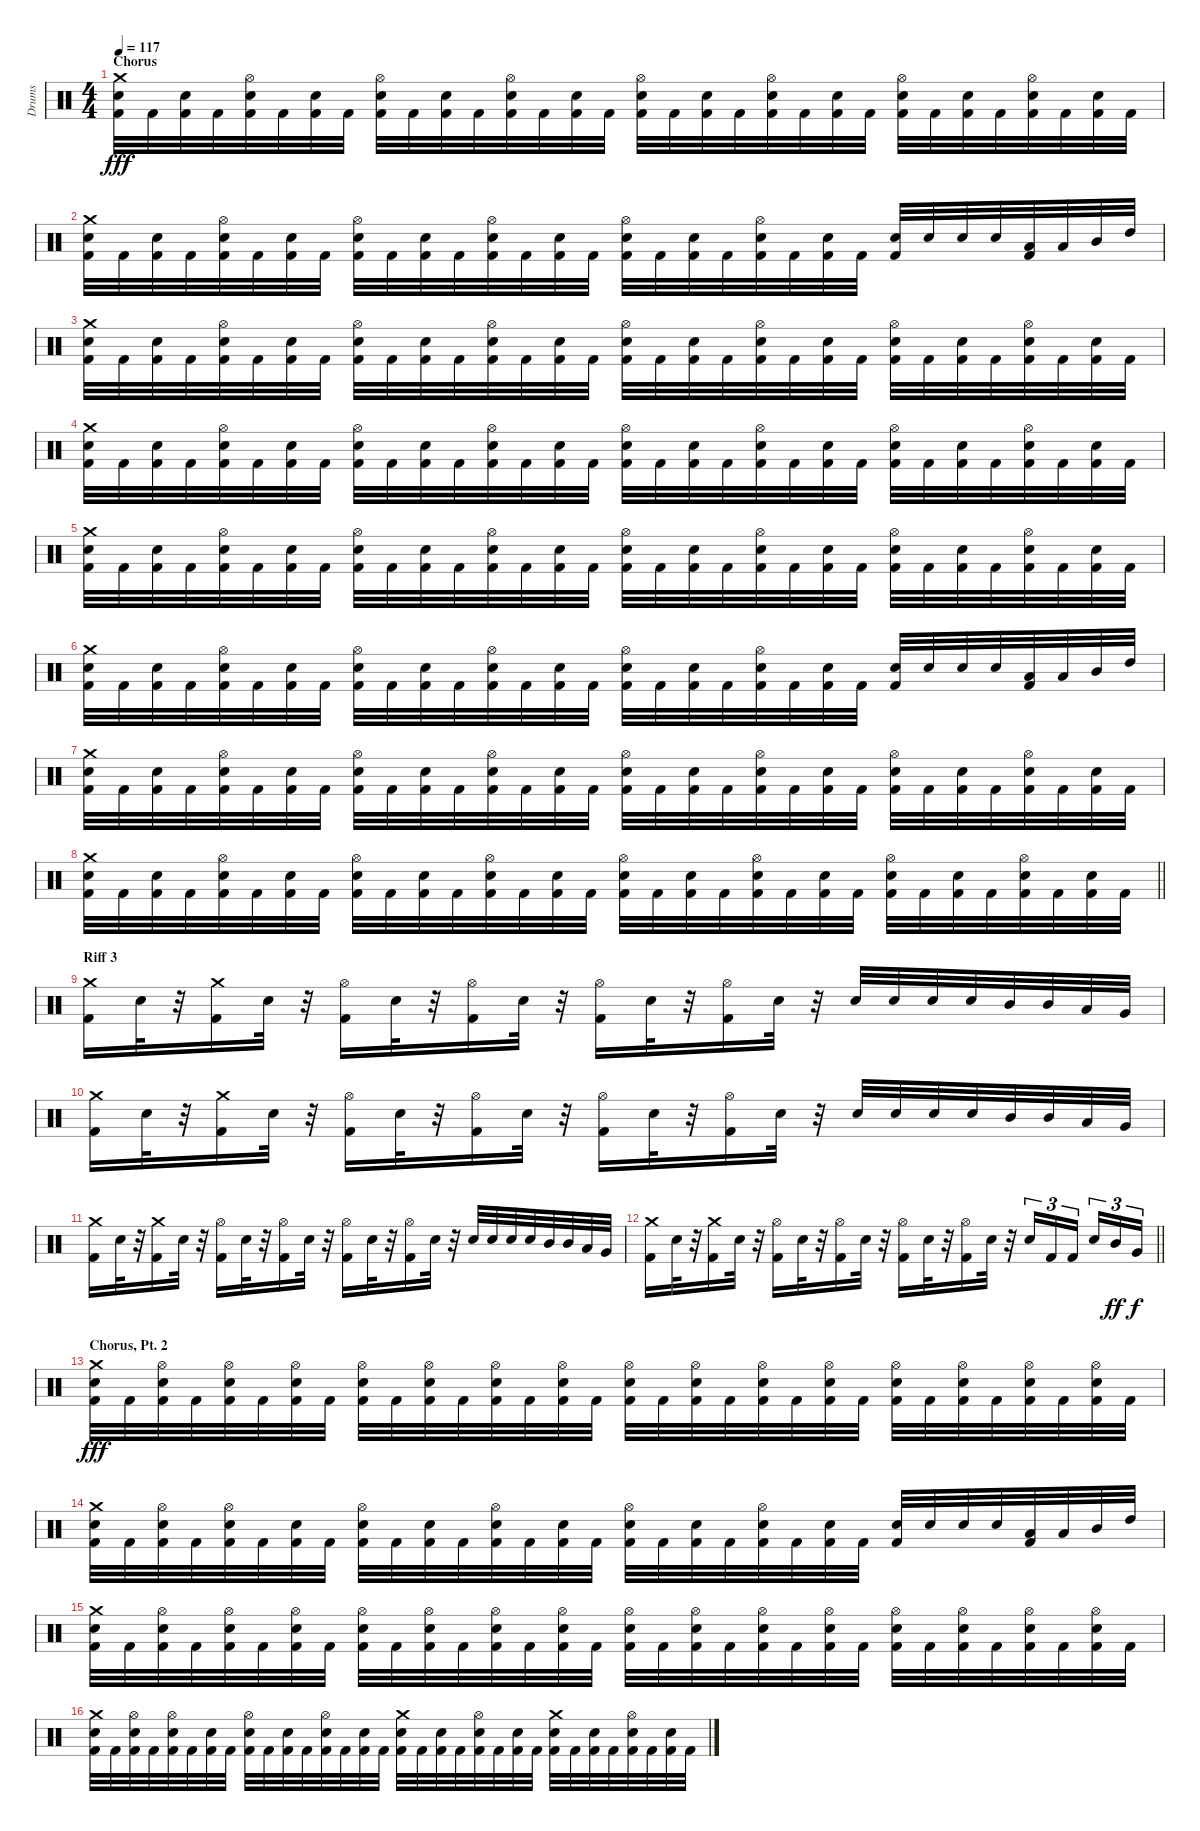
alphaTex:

\track ("Drums" "Drums") {instrument percussion}
\staff {score}
\articulation defaults
\ts (4 4)
\section ("" "Chorus")
\tempo 117
\clef neutral
\ks c
("Kick (hit) 2" "Snare (hit) 2" "Crash medium (hit)").32{dy fff} "Kick (hit) 2".32 ("Kick (hit) 2" "Snare (hit) 2").32 "Kick (hit) 2".32 ("Kick (hit) 2" "Snare (hit) 2" "Hi-Hat (open)").32 "Kick (hit) 2".32 ("Kick (hit) 2" "Snare (hit) 2").32 "Kick (hit) 2".32 ("Kick (hit) 2" "Snare (hit) 2" "Hi-Hat (open)").32 "Kick (hit) 2".32 ("Kick (hit) 2" "Snare (hit) 2").32 "Kick (hit) 2".32 ("Kick (hit) 2" "Snare (hit) 2" "Hi-Hat (open)").32 "Kick (hit) 2".32 ("Kick (hit) 2" "Snare (hit) 2").32 "Kick (hit) 2".32 ("Kick (hit) 2" "Snare (hit) 2" "Hi-Hat (open)").32 "Kick (hit) 2".32 ("Kick (hit) 2" "Snare (hit) 2").32 "Kick (hit) 2".32 ("Kick (hit) 2" "Snare (hit) 2" "Hi-Hat (open)").32 "Kick (hit) 2".32 ("Kick (hit) 2" "Snare (hit) 2").32 "Kick (hit) 2".32 ("Kick (hit) 2" "Snare (hit) 2" "Hi-Hat (open)").32 "Kick (hit) 2".32 ("Kick (hit) 2" "Snare (hit) 2").32 "Kick (hit) 2".32 ("Kick (hit) 2" "Snare (hit) 2" "Hi-Hat (open)").32 "Kick (hit) 2".32 ("Kick (hit) 2" "Snare (hit) 2").32 "Kick (hit) 2".32 |
("Kick (hit) 2" "Snare (hit) 2" "Crash medium (hit)").32 "Kick (hit) 2".32 ("Kick (hit) 2" "Snare (hit) 2").32 "Kick (hit) 2".32 ("Kick (hit) 2" "Snare (hit) 2" "Hi-Hat (open)").32 "Kick (hit) 2".32 ("Kick (hit) 2" "Snare (hit) 2").32 "Kick (hit) 2".32 ("Kick (hit) 2" "Snare (hit) 2" "Hi-Hat (open)").32 "Kick (hit) 2".32 ("Kick (hit) 2" "Snare (hit) 2").32 "Kick (hit) 2".32 ("Kick (hit) 2" "Snare (hit) 2" "Hi-Hat (open)").32 "Kick (hit) 2".32 ("Kick (hit) 2" "Snare (hit) 2").32 "Kick (hit) 2".32 ("Kick (hit) 2" "Snare (hit) 2" "Hi-Hat (open)").32 "Kick (hit) 2".32 ("Kick (hit) 2" "Snare (hit) 2").32 "Kick (hit) 2".32 ("Kick (hit) 2" "Snare (hit) 2" "Hi-Hat (open)").32 "Kick (hit) 2".32 ("Kick (hit) 2" "Snare (hit) 2").32 "Kick (hit) 2".32 ("Kick (hit) 2" "Snare (hit) 2").32 "Snare (hit) 2".32 "Snare (hit) 2".32 "Snare (hit) 2".32 ("Kick (hit) 2" "Low Tom (hit)").32 "Low Tom (hit)".32 "Mid Tom (hit)".32 "High Tom (hit)".32 |
("Kick (hit) 2" "Snare (hit) 2" "Crash medium (hit)").32 "Kick (hit) 2".32 ("Kick (hit) 2" "Snare (hit) 2").32 "Kick (hit) 2".32 ("Kick (hit) 2" "Snare (hit) 2" "Hi-Hat (open)").32 "Kick (hit) 2".32 ("Kick (hit) 2" "Snare (hit) 2").32 "Kick (hit) 2".32 ("Kick (hit) 2" "Snare (hit) 2" "Hi-Hat (open)").32 "Kick (hit) 2".32 ("Kick (hit) 2" "Snare (hit) 2").32 "Kick (hit) 2".32 ("Kick (hit) 2" "Snare (hit) 2" "Hi-Hat (open)").32 "Kick (hit) 2".32 ("Kick (hit) 2" "Snare (hit) 2").32 "Kick (hit) 2".32 ("Kick (hit) 2" "Snare (hit) 2" "Hi-Hat (open)").32 "Kick (hit) 2".32 ("Kick (hit) 2" "Snare (hit) 2").32 "Kick (hit) 2".32 ("Kick (hit) 2" "Snare (hit) 2" "Hi-Hat (open)").32 "Kick (hit) 2".32 ("Kick (hit) 2" "Snare (hit) 2").32 "Kick (hit) 2".32 ("Kick (hit) 2" "Snare (hit) 2" "Hi-Hat (open)").32 "Kick (hit) 2".32 ("Kick (hit) 2" "Snare (hit) 2").32 "Kick (hit) 2".32 ("Kick (hit) 2" "Snare (hit) 2" "Hi-Hat (open)").32 "Kick (hit) 2".32 ("Kick (hit) 2" "Snare (hit) 2").32 "Kick (hit) 2".32 |
("Kick (hit) 2" "Snare (hit) 2" "Crash medium (hit)").32 "Kick (hit) 2".32 ("Kick (hit) 2" "Snare (hit) 2").32 "Kick (hit) 2".32 ("Kick (hit) 2" "Snare (hit) 2" "Hi-Hat (open)").32 "Kick (hit) 2".32 ("Kick (hit) 2" "Snare (hit) 2").32 "Kick (hit) 2".32 ("Kick (hit) 2" "Snare (hit) 2" "Hi-Hat (open)").32 "Kick (hit) 2".32 ("Kick (hit) 2" "Snare (hit) 2").32 "Kick (hit) 2".32 ("Kick (hit) 2" "Snare (hit) 2" "Hi-Hat (open)").32 "Kick (hit) 2".32 ("Kick (hit) 2" "Snare (hit) 2").32 "Kick (hit) 2".32 ("Kick (hit) 2" "Snare (hit) 2" "Hi-Hat (open)").32 "Kick (hit) 2".32 ("Kick (hit) 2" "Snare (hit) 2").32 "Kick (hit) 2".32 ("Kick (hit) 2" "Snare (hit) 2" "Hi-Hat (open)").32 "Kick (hit) 2".32 ("Kick (hit) 2" "Snare (hit) 2").32 "Kick (hit) 2".32 ("Kick (hit) 2" "Snare (hit) 2" "Hi-Hat (open)").32 "Kick (hit) 2".32 ("Kick (hit) 2" "Snare (hit) 2").32 "Kick (hit) 2".32 ("Kick (hit) 2" "Snare (hit) 2" "Hi-Hat (open)").32 "Kick (hit) 2".32 ("Kick (hit) 2" "Snare (hit) 2").32 "Kick (hit) 2".32 |
("Kick (hit) 2" "Snare (hit) 2" "Crash medium (hit)").32 "Kick (hit) 2".32 ("Kick (hit) 2" "Snare (hit) 2").32 "Kick (hit) 2".32 ("Kick (hit) 2" "Snare (hit) 2" "Hi-Hat (open)").32 "Kick (hit) 2".32 ("Kick (hit) 2" "Snare (hit) 2").32 "Kick (hit) 2".32 ("Kick (hit) 2" "Snare (hit) 2" "Hi-Hat (open)").32 "Kick (hit) 2".32 ("Kick (hit) 2" "Snare (hit) 2").32 "Kick (hit) 2".32 ("Kick (hit) 2" "Snare (hit) 2" "Hi-Hat (open)").32 "Kick (hit) 2".32 ("Kick (hit) 2" "Snare (hit) 2").32 "Kick (hit) 2".32 ("Kick (hit) 2" "Snare (hit) 2" "Hi-Hat (open)").32 "Kick (hit) 2".32 ("Kick (hit) 2" "Snare (hit) 2").32 "Kick (hit) 2".32 ("Kick (hit) 2" "Snare (hit) 2" "Hi-Hat (open)").32 "Kick (hit) 2".32 ("Kick (hit) 2" "Snare (hit) 2").32 "Kick (hit) 2".32 ("Kick (hit) 2" "Snare (hit) 2" "Hi-Hat (open)").32 "Kick (hit) 2".32 ("Kick (hit) 2" "Snare (hit) 2").32 "Kick (hit) 2".32 ("Kick (hit) 2" "Snare (hit) 2" "Hi-Hat (open)").32 "Kick (hit) 2".32 ("Kick (hit) 2" "Snare (hit) 2").32 "Kick (hit) 2".32 |
("Kick (hit) 2" "Snare (hit) 2" "Crash medium (hit)").32 "Kick (hit) 2".32 ("Kick (hit) 2" "Snare (hit) 2").32 "Kick (hit) 2".32 ("Kick (hit) 2" "Snare (hit) 2" "Hi-Hat (open)").32 "Kick (hit) 2".32 ("Kick (hit) 2" "Snare (hit) 2").32 "Kick (hit) 2".32 ("Kick (hit) 2" "Snare (hit) 2" "Hi-Hat (open)").32 "Kick (hit) 2".32 ("Kick (hit) 2" "Snare (hit) 2").32 "Kick (hit) 2".32 ("Kick (hit) 2" "Snare (hit) 2" "Hi-Hat (open)").32 "Kick (hit) 2".32 ("Kick (hit) 2" "Snare (hit) 2").32 "Kick (hit) 2".32 ("Kick (hit) 2" "Snare (hit) 2" "Hi-Hat (open)").32 "Kick (hit) 2".32 ("Kick (hit) 2" "Snare (hit) 2").32 "Kick (hit) 2".32 ("Kick (hit) 2" "Snare (hit) 2" "Hi-Hat (open)").32 "Kick (hit) 2".32 ("Kick (hit) 2" "Snare (hit) 2").32 "Kick (hit) 2".32 ("Kick (hit) 2" "Snare (hit) 2").32 "Snare (hit) 2".32 "Snare (hit) 2".32 "Snare (hit) 2".32 ("Kick (hit) 2" "Low Tom (hit)").32 "Low Tom (hit)".32 "Mid Tom (hit)".32 "High Tom (hit)".32 |
("Kick (hit) 2" "Snare (hit) 2" "Crash medium (hit)").32 "Kick (hit) 2".32 ("Kick (hit) 2" "Snare (hit) 2").32 "Kick (hit) 2".32 ("Kick (hit) 2" "Snare (hit) 2" "Hi-Hat (open)").32 "Kick (hit) 2".32 ("Kick (hit) 2" "Snare (hit) 2").32 "Kick (hit) 2".32 ("Kick (hit) 2" "Snare (hit) 2" "Hi-Hat (open)").32 "Kick (hit) 2".32 ("Kick (hit) 2" "Snare (hit) 2").32 "Kick (hit) 2".32 ("Kick (hit) 2" "Snare (hit) 2" "Hi-Hat (open)").32 "Kick (hit) 2".32 ("Kick (hit) 2" "Snare (hit) 2").32 "Kick (hit) 2".32 ("Kick (hit) 2" "Snare (hit) 2" "Hi-Hat (open)").32 "Kick (hit) 2".32 ("Kick (hit) 2" "Snare (hit) 2").32 "Kick (hit) 2".32 ("Kick (hit) 2" "Snare (hit) 2" "Hi-Hat (open)").32 "Kick (hit) 2".32 ("Kick (hit) 2" "Snare (hit) 2").32 "Kick (hit) 2".32 ("Kick (hit) 2" "Snare (hit) 2" "Hi-Hat (open)").32 "Kick (hit) 2".32 ("Kick (hit) 2" "Snare (hit) 2").32 "Kick (hit) 2".32 ("Kick (hit) 2" "Snare (hit) 2" "Hi-Hat (open)").32 "Kick (hit) 2".32 ("Kick (hit) 2" "Snare (hit) 2").32 "Kick (hit) 2".32 |
\barLineRight lightlight
("Kick (hit) 2" "Snare (hit) 2" "Crash medium (hit)").32 "Kick (hit) 2".32 ("Kick (hit) 2" "Snare (hit) 2").32 "Kick (hit) 2".32 ("Kick (hit) 2" "Snare (hit) 2" "Hi-Hat (open)").32 "Kick (hit) 2".32 ("Kick (hit) 2" "Snare (hit) 2").32 "Kick (hit) 2".32 ("Kick (hit) 2" "Snare (hit) 2" "Hi-Hat (open)").32 "Kick (hit) 2".32 ("Kick (hit) 2" "Snare (hit) 2").32 "Kick (hit) 2".32 ("Kick (hit) 2" "Snare (hit) 2" "Hi-Hat (open)").32 "Kick (hit) 2".32 ("Kick (hit) 2" "Snare (hit) 2").32 "Kick (hit) 2".32 ("Kick (hit) 2" "Snare (hit) 2" "Hi-Hat (open)").32 "Kick (hit) 2".32 ("Kick (hit) 2" "Snare (hit) 2").32 "Kick (hit) 2".32 ("Kick (hit) 2" "Snare (hit) 2" "Hi-Hat (open)").32 "Kick (hit) 2".32 ("Kick (hit) 2" "Snare (hit) 2").32 "Kick (hit) 2".32 ("Kick (hit) 2" "Snare (hit) 2" "Hi-Hat (open)").32 "Kick (hit) 2".32 ("Kick (hit) 2" "Snare (hit) 2").32 "Kick (hit) 2".32 ("Kick (hit) 2" "Snare (hit) 2" "Hi-Hat (open)").32 "Kick (hit) 2".32 ("Kick (hit) 2" "Snare (hit) 2").32 "Kick (hit) 2".32 |
\section ("" "Riff 3")
("Kick (hit) 2" "Crash medium (hit)").16 "Snare (hit) 2".32 r.32 ("Kick (hit) 2" "Crash medium (hit)").16 "Snare (hit) 2".32 r.32 ("Kick (hit) 2" "Hi-Hat (open)").16 "Snare (hit) 2".32 r.32 ("Kick (hit) 2" "Hi-Hat (open)").16 "Snare (hit) 2".32 r.32 ("Kick (hit) 2" "Hi-Hat (open)").16 "Snare (hit) 2".32 r.32 ("Kick (hit) 2" "Hi-Hat (open)").16 "Snare (hit) 2".32 r.32 "Snare (hit) 2".32 "Snare (hit) 2".32 "Snare (hit) 2".32 "Snare (hit) 2".32 "Mid Tom (hit)".32 "Mid Tom (hit)".32 "Low Tom (hit)".32 "Very Low Tom (hit)".32 |
("Kick (hit) 2" "Crash medium (hit)").16 "Snare (hit) 2".32 r.32 ("Kick (hit) 2" "Crash medium (hit)").16 "Snare (hit) 2".32 r.32 ("Kick (hit) 2" "Hi-Hat (open)").16 "Snare (hit) 2".32 r.32 ("Kick (hit) 2" "Hi-Hat (open)").16 "Snare (hit) 2".32 r.32 ("Kick (hit) 2" "Hi-Hat (open)").16 "Snare (hit) 2".32 r.32 ("Kick (hit) 2" "Hi-Hat (open)").16 "Snare (hit) 2".32 r.32 "Snare (hit) 2".32 "Snare (hit) 2".32 "Snare (hit) 2".32 "Snare (hit) 2".32 "Mid Tom (hit)".32 "Mid Tom (hit)".32 "Low Tom (hit)".32 "Very Low Tom (hit)".32 |
("Kick (hit) 2" "Crash medium (hit)").16 "Snare (hit) 2".32 r.32 ("Kick (hit) 2" "Crash medium (hit)").16 "Snare (hit) 2".32 r.32 ("Kick (hit) 2" "Hi-Hat (open)").16 "Snare (hit) 2".32 r.32 ("Kick (hit) 2" "Hi-Hat (open)").16 "Snare (hit) 2".32 r.32 ("Kick (hit) 2" "Hi-Hat (open)").16 "Snare (hit) 2".32 r.32 ("Kick (hit) 2" "Hi-Hat (open)").16 "Snare (hit) 2".32 r.32 "Snare (hit) 2".32 "Snare (hit) 2".32 "Snare (hit) 2".32 "Snare (hit) 2".32 "Mid Tom (hit)".32 "Mid Tom (hit)".32 "Low Tom (hit)".32 "Very Low Tom (hit)".32 |
\barLineRight lightlight
("Kick (hit) 2" "Crash medium (hit)").16 "Snare (hit) 2".32 r.32 ("Kick (hit) 2" "Crash medium (hit)").16 "Snare (hit) 2".32 r.32 ("Kick (hit) 2" "Hi-Hat (open)").16 "Snare (hit) 2".32 r.32 ("Kick (hit) 2" "Hi-Hat (open)").16 "Snare (hit) 2".32 r.32 ("Kick (hit) 2" "Hi-Hat (open)").16 "Snare (hit) 2".32 r.32 ("Kick (hit) 2" "Hi-Hat (open)").16 "Snare (hit) 2".32 r.32 "Snare (hit) 2".16{tu (3 2)} "Kick (hit) 2".16{tu (3 2)} "Kick (hit) 2".16{tu (3 2) beam splitsecondary} "Snare (hit) 2".16{tu (3 2)} "Mid Tom (hit)".16{tu (3 2) dy ff} "Very Low Tom (hit)".16{tu (3 2) dy f} |
\section ("" "Chorus, Pt. 2")
("Kick (hit) 2" "Snare (hit) 2" "Crash medium (hit)").32{dy fff} "Kick (hit) 2".32 ("Kick (hit) 2" "Snare (hit) 2" "Hi-Hat (open)").32 "Kick (hit) 2".32 ("Kick (hit) 2" "Snare (hit) 2" "Hi-Hat (open)").32 "Kick (hit) 2".32 ("Kick (hit) 2" "Snare (hit) 2" "Hi-Hat (open)").32 "Kick (hit) 2".32 ("Kick (hit) 2" "Snare (hit) 2" "Hi-Hat (open)").32 "Kick (hit) 2".32 ("Kick (hit) 2" "Snare (hit) 2" "Hi-Hat (open)").32 "Kick (hit) 2".32 ("Kick (hit) 2" "Snare (hit) 2" "Hi-Hat (open)").32 "Kick (hit) 2".32 ("Kick (hit) 2" "Snare (hit) 2" "Hi-Hat (open)").32 "Kick (hit) 2".32 ("Kick (hit) 2" "Snare (hit) 2" "Hi-Hat (open)").32 "Kick (hit) 2".32 ("Kick (hit) 2" "Snare (hit) 2" "Hi-Hat (open)").32 "Kick (hit) 2".32 ("Kick (hit) 2" "Snare (hit) 2" "Hi-Hat (open)").32 "Kick (hit) 2".32 ("Kick (hit) 2" "Snare (hit) 2" "Hi-Hat (open)").32 "Kick (hit) 2".32 ("Kick (hit) 2" "Snare (hit) 2" "Hi-Hat (open)").32 "Kick (hit) 2".32 ("Kick (hit) 2" "Snare (hit) 2" "Hi-Hat (open)").32 "Kick (hit) 2".32 ("Kick (hit) 2" "Snare (hit) 2" "Hi-Hat (open)").32 "Kick (hit) 2".32 ("Kick (hit) 2" "Snare (hit) 2" "Hi-Hat (open)").32 "Kick (hit) 2".32 |
("Kick (hit) 2" "Snare (hit) 2" "Crash medium (hit)").32 "Kick (hit) 2".32 ("Kick (hit) 2" "Snare (hit) 2" "Hi-Hat (open)").32 "Kick (hit) 2".32 ("Kick (hit) 2" "Snare (hit) 2" "Hi-Hat (open)").32 "Kick (hit) 2".32 ("Kick (hit) 2" "Snare (hit) 2").32 "Kick (hit) 2".32 ("Kick (hit) 2" "Snare (hit) 2" "Hi-Hat (open)").32 "Kick (hit) 2".32 ("Kick (hit) 2" "Snare (hit) 2").32 "Kick (hit) 2".32 ("Kick (hit) 2" "Snare (hit) 2" "Hi-Hat (open)").32 "Kick (hit) 2".32 ("Kick (hit) 2" "Snare (hit) 2").32 "Kick (hit) 2".32 ("Kick (hit) 2" "Snare (hit) 2" "Hi-Hat (open)").32 "Kick (hit) 2".32 ("Kick (hit) 2" "Snare (hit) 2").32 "Kick (hit) 2".32 ("Kick (hit) 2" "Snare (hit) 2" "Hi-Hat (open)").32 "Kick (hit) 2".32 ("Kick (hit) 2" "Snare (hit) 2").32 "Kick (hit) 2".32 ("Kick (hit) 2" "Snare (hit) 2").32 "Snare (hit) 2".32 "Snare (hit) 2".32 "Snare (hit) 2".32 ("Kick (hit) 2" "Low Tom (hit)").32 "Low Tom (hit)".32 "Mid Tom (hit)".32 "High Tom (hit)".32 |
("Kick (hit) 2" "Snare (hit) 2" "Crash medium (hit)").32 "Kick (hit) 2".32 ("Kick (hit) 2" "Snare (hit) 2" "Hi-Hat (open)").32 "Kick (hit) 2".32 ("Kick (hit) 2" "Snare (hit) 2" "Hi-Hat (open)").32 "Kick (hit) 2".32 ("Kick (hit) 2" "Snare (hit) 2" "Hi-Hat (open)").32 "Kick (hit) 2".32 ("Kick (hit) 2" "Snare (hit) 2" "Hi-Hat (open)").32 "Kick (hit) 2".32 ("Kick (hit) 2" "Snare (hit) 2" "Hi-Hat (open)").32 "Kick (hit) 2".32 ("Kick (hit) 2" "Snare (hit) 2" "Hi-Hat (open)").32 "Kick (hit) 2".32 ("Kick (hit) 2" "Snare (hit) 2" "Hi-Hat (open)").32 "Kick (hit) 2".32 ("Kick (hit) 2" "Snare (hit) 2" "Hi-Hat (open)").32 "Kick (hit) 2".32 ("Kick (hit) 2" "Snare (hit) 2" "Hi-Hat (open)").32 "Kick (hit) 2".32 ("Kick (hit) 2" "Snare (hit) 2" "Hi-Hat (open)").32 "Kick (hit) 2".32 ("Kick (hit) 2" "Snare (hit) 2" "Hi-Hat (open)").32 "Kick (hit) 2".32 ("Kick (hit) 2" "Snare (hit) 2" "Hi-Hat (open)").32 "Kick (hit) 2".32 ("Kick (hit) 2" "Snare (hit) 2" "Hi-Hat (open)").32 "Kick (hit) 2".32 ("Kick (hit) 2" "Snare (hit) 2" "Hi-Hat (open)").32 "Kick (hit) 2".32 ("Kick (hit) 2" "Snare (hit) 2" "Hi-Hat (open)").32 "Kick (hit) 2".32 |
("Kick (hit) 2" "Snare (hit) 2" "Crash medium (hit)").32 "Kick (hit) 2".32 ("Kick (hit) 2" "Snare (hit) 2" "Hi-Hat (open)").32 "Kick (hit) 2".32 ("Kick (hit) 2" "Snare (hit) 2" "Hi-Hat (open)").32 "Kick (hit) 2".32 ("Kick (hit) 2" "Snare (hit) 2").32 "Kick (hit) 2".32 ("Kick (hit) 2" "Snare (hit) 2" "Hi-Hat (open)").32 "Kick (hit) 2".32 ("Kick (hit) 2" "Snare (hit) 2").32 "Kick (hit) 2".32 ("Kick (hit) 2" "Snare (hit) 2" "Hi-Hat (open)").32 "Kick (hit) 2".32 ("Kick (hit) 2" "Snare (hit) 2").32 "Kick (hit) 2".32 ("Kick (hit) 2" "Snare (hit) 2" "Crash medium (hit)").32 "Kick (hit) 2".32 ("Kick (hit) 2" "Snare (hit) 2").32 "Kick (hit) 2".32 ("Kick (hit) 2" "Snare (hit) 2" "Hi-Hat (open)").32 "Kick (hit) 2".32 ("Kick (hit) 2" "Snare (hit) 2").32 "Kick (hit) 2".32 ("Kick (hit) 2" "Snare (hit) 2" "Crash medium (hit)").32 "Kick (hit) 2".32 ("Kick (hit) 2" "Snare (hit) 2").32 "Kick (hit) 2".32 ("Kick (hit) 2" "Snare (hit) 2" "Hi-Hat (open)").32 "Kick (hit) 2".32 ("Kick (hit) 2" "Snare (hit) 2").32 "Kick (hit) 2".32
